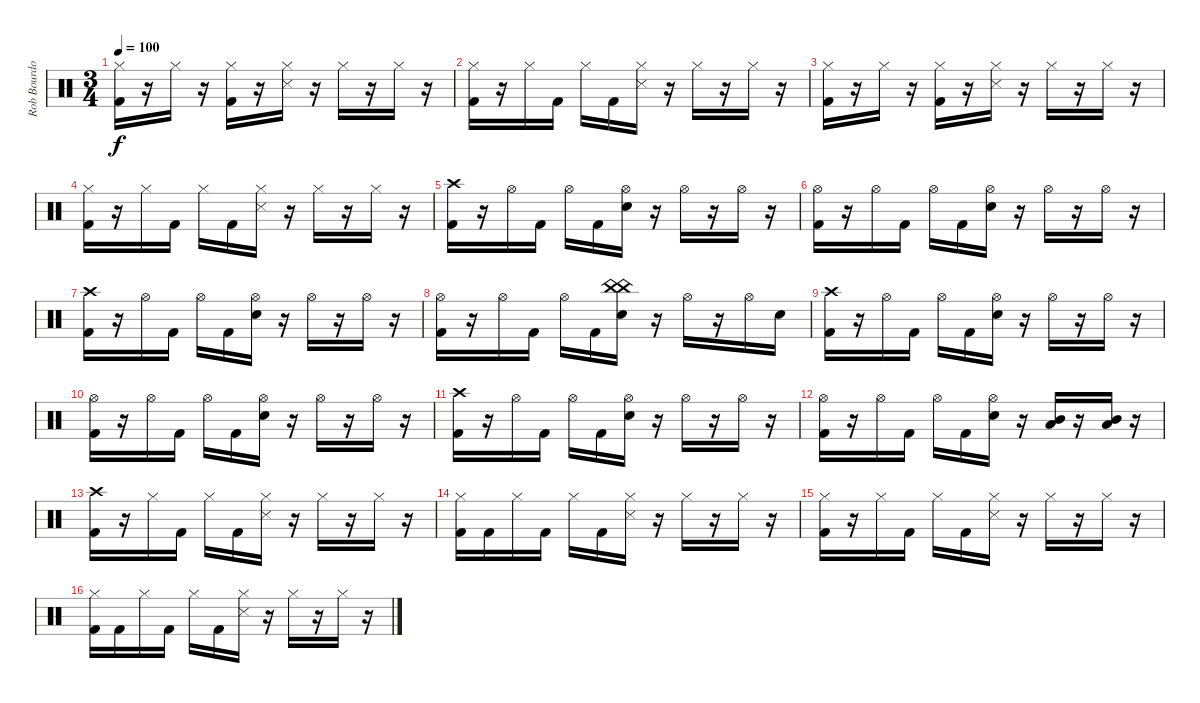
\track ("Rob Bourdon (Drums)" "Rob Bourdo") {instrument percussion}
\staff {score}
\articulation defaults
\ts (3 4)
\tempo 100
\clef neutral
\ks c
("Hi-Hat (closed)" "Kick (hit) 2").16{dy f} r.16 "Hi-Hat (closed)".16 r.16 ("Hi-Hat (closed)" "Kick (hit) 2").16 r.16 ("Hi-Hat (closed)" "Snare (side stick) 3").16 r.16 "Hi-Hat (closed)".16 r.16 "Hi-Hat (closed)".16 r.16 |
("Hi-Hat (closed)" "Kick (hit) 2").16 r.16 "Hi-Hat (closed)".16 "Kick (hit) 2".16 "Hi-Hat (closed)".16 "Kick (hit) 2".16 ("Hi-Hat (closed)" "Snare (side stick) 3").16 r.16 "Hi-Hat (closed)".16 r.16 "Hi-Hat (closed)".16 r.16 |
("Hi-Hat (closed)" "Kick (hit) 2").16 r.16 "Hi-Hat (closed)".16 r.16 ("Hi-Hat (closed)" "Kick (hit) 2").16 r.16 ("Hi-Hat (closed)" "Snare (side stick) 3").16 r.16 "Hi-Hat (closed)".16 r.16 "Hi-Hat (closed)".16 r.16 |
("Hi-Hat (closed)" "Kick (hit) 2").16 r.16 "Hi-Hat (closed)".16 "Kick (hit) 2".16 "Hi-Hat (closed)".16 "Kick (hit) 2".16 ("Hi-Hat (closed)" "Snare (side stick) 3").16 r.16 "Hi-Hat (closed)".16 r.16 "Hi-Hat (closed)".16 r.16 |
("Crash high (hit)" "Kick (hit) 2").16 r.16 "Hi-Hat (open)".16 "Kick (hit) 2".16 "Hi-Hat (open)".16 "Kick (hit) 2".16 ("Hi-Hat (open)" "Electric Snare (hit)").16 r.16 "Hi-Hat (open)".16 r.16 "Hi-Hat (open)".16 r.16 |
("Hi-Hat (open)" "Kick (hit) 2").16 r.16 "Hi-Hat (open)".16 "Kick (hit) 2".16 "Hi-Hat (open)".16 "Kick (hit) 2".16 ("Hi-Hat (open)" "Electric Snare (hit)").16 r.16 "Hi-Hat (open)".16 r.16 "Hi-Hat (open)".16 r.16 |
("Crash high (hit)" "Kick (hit) 2").16 r.16 "Hi-Hat (open)".16 "Kick (hit) 2".16 "Hi-Hat (open)".16 "Kick (hit) 2".16 ("Hi-Hat (open)" "Electric Snare (hit)").16 r.16 "Hi-Hat (open)".16 r.16 "Hi-Hat (open)".16 r.16 |
("Hi-Hat (open)" "Kick (hit) 2").16 r.16 "Hi-Hat (open)".16 "Kick (hit) 2".16 "Hi-Hat (open)".16 "Kick (hit) 2".16 ("China (hit)" "China (hit)" "Electric Snare (hit)").16 r.16 "Hi-Hat (open)".16 r.16 "Hi-Hat (open)".16 "Electric Snare (hit)".16 |
("Crash high (hit)" "Kick (hit) 2").16 r.16 "Hi-Hat (open)".16 "Kick (hit) 2".16 "Hi-Hat (open)".16 "Kick (hit) 2".16 ("Hi-Hat (open)" "Electric Snare (hit)").16 r.16 "Hi-Hat (open)".16 r.16 "Hi-Hat (open)".16 r.16 |
("Hi-Hat (open)" "Kick (hit) 2").16 r.16 "Hi-Hat (open)".16 "Kick (hit) 2".16 "Hi-Hat (open)".16 "Kick (hit) 2".16 ("Hi-Hat (open)" "Electric Snare (hit)").16 r.16 "Hi-Hat (open)".16 r.16 "Hi-Hat (open)".16 r.16 |
("Crash high (hit)" "Kick (hit) 2").16 r.16 "Hi-Hat (open)".16 "Kick (hit) 2".16 "Hi-Hat (open)".16 "Kick (hit) 2".16 ("Hi-Hat (open)" "Electric Snare (hit)").16 r.16 "Hi-Hat (open)".16 r.16 "Hi-Hat (open)".16 r.16 |
("Hi-Hat (open)" "Kick (hit) 2").16 r.16 "Hi-Hat (open)".16 "Kick (hit) 2".16 "Hi-Hat (open)".16 "Kick (hit) 2".16 ("Hi-Hat (open)" "Electric Snare (hit)").16 r.16 ("Mid Tom (hit)" "Low Tom (hit)").16 r.16 ("Mid Tom (hit)" "Low Tom (hit)").16 r.16 |
("Crash high (hit)" "Kick (hit) 2").16 r.16 "Hi-Hat (closed)".16 "Kick (hit) 2".16 "Hi-Hat (closed)".16 "Kick (hit) 2".16 ("Hi-Hat (closed)" "Snare (side stick) 3").16 r.16 "Hi-Hat (closed)".16 r.16 "Hi-Hat (closed)".16 r.16 |
("Hi-Hat (closed)" "Kick (hit) 2").16 "Kick (hit) 2".16 "Hi-Hat (closed)".16 "Kick (hit) 2".16 "Hi-Hat (closed)".16 "Kick (hit) 2".16 ("Hi-Hat (closed)" "Snare (side stick) 3").16 r.16 "Hi-Hat (closed)".16 r.16 "Hi-Hat (closed)".16 r.16 |
("Hi-Hat (closed)" "Kick (hit) 2").16 r.16 "Hi-Hat (closed)".16 "Kick (hit) 2".16 "Hi-Hat (closed)".16 "Kick (hit) 2".16 ("Hi-Hat (closed)" "Snare (side stick) 3").16 r.16 "Hi-Hat (closed)".16 r.16 "Hi-Hat (closed)".16 r.16 |
("Hi-Hat (closed)" "Kick (hit) 2").16 "Kick (hit) 2".16 "Hi-Hat (closed)".16 "Kick (hit) 2".16 "Hi-Hat (closed)".16 "Kick (hit) 2".16 ("Hi-Hat (closed)" "Snare (side stick) 3").16 r.16 "Hi-Hat (closed)".16 r.16 "Hi-Hat (closed)".16 r.16
